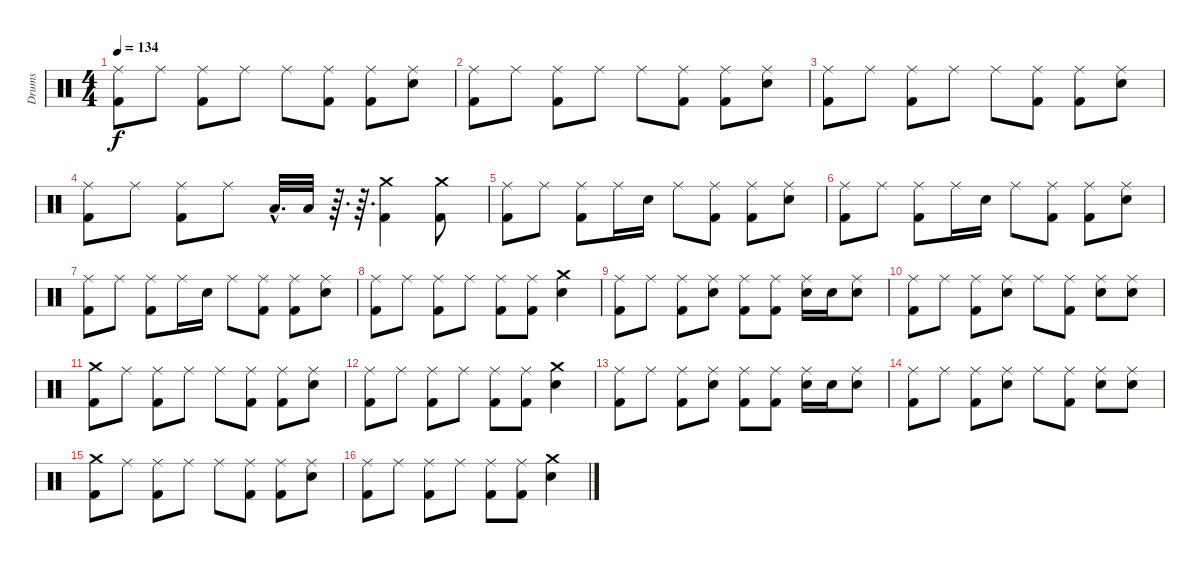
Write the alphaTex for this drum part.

\track ("Drums" "Drums") {instrument percussion}
\staff {score}
\articulation defaults
\ts (4 4)
\tempo 134
\clef neutral
\ks c
("Ride (middle)" "Kick (hit) 2").8{dy f} "Ride (middle)".8 ("Ride (middle)" "Kick (hit) 2").8 "Ride (middle)".8 "Ride (middle)".8 ("Ride (middle)" "Kick (hit) 2").8 ("Ride (middle)" "Kick (hit) 2").8 ("Ride (middle)" "Snare (hit) 2").8 |
("Ride (middle)" "Kick (hit) 2").8 "Ride (middle)".8 ("Ride (middle)" "Kick (hit) 2").8 "Ride (middle)".8 "Ride (middle)".8 ("Ride (middle)" "Kick (hit) 2").8 ("Ride (middle)" "Kick (hit) 2").8 ("Ride (middle)" "Snare (hit) 2").8 |
("Ride (middle)" "Kick (hit) 2").8 "Ride (middle)".8 ("Ride (middle)" "Kick (hit) 2").8 "Ride (middle)".8 "Ride (middle)".8 ("Ride (middle)" "Kick (hit) 2").8 ("Ride (middle)" "Kick (hit) 2").8 ("Ride (middle)" "Snare (hit) 2").8 |
("Ride (middle)" "Kick (hit) 2").8 "Ride (middle)".8 ("Ride (middle)" "Kick (hit) 2").8 "Ride (middle)".8 "Low Tom (hit)"{hac}.32{d} "Low Tom (hit)".32 r.64{d} r.64{d} ("Crash medium (hit)" "Kick (hit) 2").4 ("Crash medium (hit)" "Kick (hit) 2").8 |
("Ride (middle)" "Kick (hit) 2").8 "Ride (middle)".8 ("Ride (middle)" "Kick (hit) 2").8 "Ride (middle)".16 "Snare (hit) 2".16 "Ride (middle)".8 ("Ride (middle)" "Kick (hit) 2").8 ("Ride (middle)" "Kick (hit) 2").8 ("Ride (middle)" "Snare (hit) 2").8 |
("Ride (middle)" "Kick (hit) 2").8 "Ride (middle)".8 ("Ride (middle)" "Kick (hit) 2").8 "Ride (middle)".16 "Snare (hit) 2".16 "Ride (middle)".8 ("Ride (middle)" "Kick (hit) 2").8 ("Ride (middle)" "Kick (hit) 2").8 ("Ride (middle)" "Snare (hit) 2").8 |
("Ride (middle)" "Kick (hit) 2").8 "Ride (middle)".8 ("Ride (middle)" "Kick (hit) 2").8 "Ride (middle)".16 "Snare (hit) 2".16 "Ride (middle)".8 ("Ride (middle)" "Kick (hit) 2").8 ("Ride (middle)" "Kick (hit) 2").8 ("Ride (middle)" "Snare (hit) 2").8 |
("Ride (middle)" "Kick (hit) 2").8 "Ride (middle)".8 ("Ride (middle)" "Kick (hit) 2").8 "Ride (middle)".8 ("Ride (middle)" "Kick (hit) 2").8 ("Ride (middle)" "Kick (hit) 2").8 ("Crash medium (hit)" "Snare (hit) 2").4 |
("Ride (middle)" "Kick (hit) 2").8 "Ride (middle)".8 ("Ride (middle)" "Kick (hit) 2").8 ("Ride (middle)" "Snare (hit) 2").8 ("Ride (middle)" "Kick (hit) 2").8 ("Ride (middle)" "Kick (hit) 2").8 ("Ride (middle)" "Snare (hit) 2").16 "Snare (hit) 2".16 ("Ride (middle)" "Snare (hit) 2").8 |
("Ride (middle)" "Kick (hit) 2").8 "Ride (middle)".8 ("Ride (middle)" "Kick (hit) 2").8 ("Ride (middle)" "Snare (hit) 2").8 "Ride (middle)".8 ("Ride (middle)" "Kick (hit) 2").8 ("Ride (middle)" "Snare (hit) 2").8 ("Ride (middle)" "Snare (hit) 2").8 |
("Crash medium (hit)" "Kick (hit) 2").8 "Ride (middle)".8 ("Ride (middle)" "Kick (hit) 2").8 "Ride (middle)".8 "Ride (middle)".8 ("Ride (middle)" "Kick (hit) 2").8 ("Ride (middle)" "Kick (hit) 2").8 ("Ride (middle)" "Snare (hit) 2").8 |
("Ride (middle)" "Kick (hit) 2").8 "Ride (middle)".8 ("Ride (middle)" "Kick (hit) 2").8 "Ride (middle)".8 ("Ride (middle)" "Kick (hit) 2").8 ("Ride (middle)" "Kick (hit) 2").8 ("Crash medium (hit)" "Snare (hit) 2").4 |
("Ride (middle)" "Kick (hit) 2").8 "Ride (middle)".8 ("Ride (middle)" "Kick (hit) 2").8 ("Ride (middle)" "Snare (hit) 2").8 ("Ride (middle)" "Kick (hit) 2").8 ("Ride (middle)" "Kick (hit) 2").8 ("Ride (middle)" "Snare (hit) 2").16 "Snare (hit) 2".16 ("Ride (middle)" "Snare (hit) 2").8 |
("Ride (middle)" "Kick (hit) 2").8 "Ride (middle)".8 ("Ride (middle)" "Kick (hit) 2").8 ("Ride (middle)" "Snare (hit) 2").8 "Ride (middle)".8 ("Ride (middle)" "Kick (hit) 2").8 ("Ride (middle)" "Snare (hit) 2").8 ("Ride (middle)" "Snare (hit) 2").8 |
("Crash medium (hit)" "Kick (hit) 2").8 "Ride (middle)".8 ("Ride (middle)" "Kick (hit) 2").8 "Ride (middle)".8 "Ride (middle)".8 ("Ride (middle)" "Kick (hit) 2").8 ("Ride (middle)" "Kick (hit) 2").8 ("Ride (middle)" "Snare (hit) 2").8 |
("Ride (middle)" "Kick (hit) 2").8 "Ride (middle)".8 ("Ride (middle)" "Kick (hit) 2").8 "Ride (middle)".8 ("Ride (middle)" "Kick (hit) 2").8 ("Ride (middle)" "Kick (hit) 2").8 ("Crash medium (hit)" "Snare (hit) 2").4
